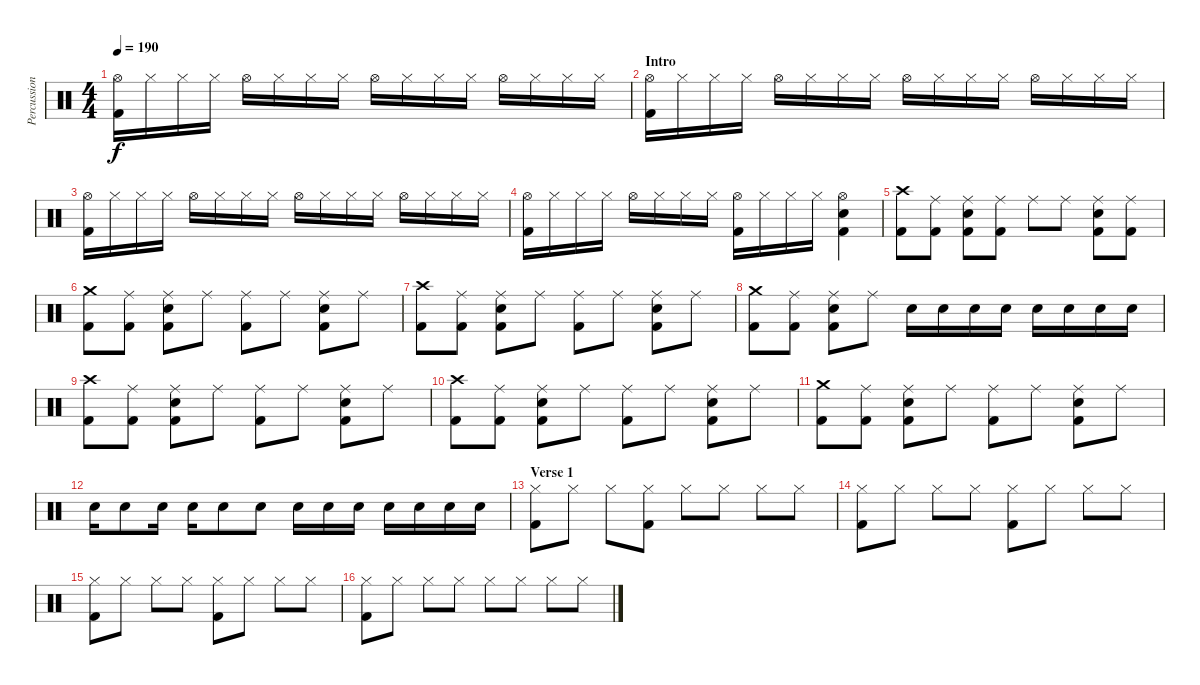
\track ("Percussion" "Percussion") {instrument percussion}
\staff {score}
\articulation defaults
\ts (4 4)
\tempo 190
\clef neutral
\ks c
("Hi-Hat (open)" "Kick (hit) 2").16{dy f} "Hi-Hat (closed)".16 "Hi-Hat (closed)".16 "Hi-Hat (closed)".16 "Hi-Hat (open)".16 "Hi-Hat (closed)".16 "Hi-Hat (closed)".16 "Hi-Hat (closed)".16 "Hi-Hat (open)".16 "Hi-Hat (closed)".16 "Hi-Hat (closed)".16 "Hi-Hat (closed)".16 "Hi-Hat (open)".16 "Hi-Hat (closed)".16 "Hi-Hat (closed)".16 "Hi-Hat (closed)".16 |
\section ("" "Intro")
("Hi-Hat (open)" "Kick (hit) 2").16 "Hi-Hat (closed)".16 "Hi-Hat (closed)".16 "Hi-Hat (closed)".16 "Hi-Hat (open)".16 "Hi-Hat (closed)".16 "Hi-Hat (closed)".16 "Hi-Hat (closed)".16 "Hi-Hat (open)".16 "Hi-Hat (closed)".16 "Hi-Hat (closed)".16 "Hi-Hat (closed)".16 "Hi-Hat (open)".16 "Hi-Hat (closed)".16 "Hi-Hat (closed)".16 "Hi-Hat (closed)".16 |
("Hi-Hat (open)" "Kick (hit) 2").16 "Hi-Hat (closed)".16 "Hi-Hat (closed)".16 "Hi-Hat (closed)".16 "Hi-Hat (open)".16 "Hi-Hat (closed)".16 "Hi-Hat (closed)".16 "Hi-Hat (closed)".16 "Hi-Hat (open)".16 "Hi-Hat (closed)".16 "Hi-Hat (closed)".16 "Hi-Hat (closed)".16 "Hi-Hat (open)".16 "Hi-Hat (closed)".16 "Hi-Hat (closed)".16 "Hi-Hat (closed)".16 |
("Hi-Hat (open)" "Kick (hit) 2").16 "Hi-Hat (closed)".16 "Hi-Hat (closed)".16 "Hi-Hat (closed)".16 "Hi-Hat (open)".16 "Hi-Hat (closed)".16 "Hi-Hat (closed)".16 "Hi-Hat (closed)".16 ("Hi-Hat (open)" "Kick (hit) 2").16 "Hi-Hat (closed)".16 "Hi-Hat (closed)".16 "Hi-Hat (closed)".16 ("Hi-Hat (open)" "Snare (hit)" "Kick (hit) 2").4 |
("Crash high (hit)" "Kick (hit) 2").8 ("Ride (middle)" "Kick (hit) 2").8 ("Electric Snare (hit)" "Ride (middle)" "Kick (hit) 2").8 ("Ride (middle)" "Kick (hit) 2").8 "Ride (middle)".8 "Ride (middle)".8 ("Kick (hit) 2" "Ride (middle)" "Electric Snare (hit)").8 ("Ride (middle)" "Kick (hit) 2").8 |
("Crash medium (hit)" "Kick (hit) 2").8 ("Ride (middle)" "Kick (hit) 2").8 ("Electric Snare (hit)" "Ride (middle)" "Kick (hit) 2").8 "Ride (middle)".8 ("Ride (middle)" "Kick (hit) 2").8 "Ride (middle)".8 ("Kick (hit) 2" "Ride (middle)" "Electric Snare (hit)").8 "Ride (middle)".8 |
("Crash high (hit)" "Kick (hit) 2").8 ("Ride (middle)" "Kick (hit) 2").8 ("Electric Snare (hit)" "Ride (middle)" "Kick (hit) 2").8 "Ride (middle)".8 ("Ride (middle)" "Kick (hit) 2").8 "Ride (middle)".8 ("Kick (hit) 2" "Ride (middle)" "Electric Snare (hit)").8 "Ride (middle)".8 |
("Crash medium (hit)" "Kick (hit) 2").8 ("Ride (middle)" "Kick (hit) 2").8 ("Electric Snare (hit)" "Ride (middle)" "Kick (hit) 2").8 "Ride (middle)".8 "Electric Snare (hit)".16 "Electric Snare (hit)".16 "Electric Snare (hit)".16 "Electric Snare (hit)".16 "Electric Snare (hit)".16 "Electric Snare (hit)".16 "Electric Snare (hit)".16 "Electric Snare (hit)".16 |
("Crash high (hit)" "Kick (hit) 2").8 ("Ride (middle)" "Kick (hit) 2").8 ("Electric Snare (hit)" "Ride (middle)" "Kick (hit) 2").8 "Ride (middle)".8 ("Ride (middle)" "Kick (hit) 2").8 "Ride (middle)".8 ("Kick (hit) 2" "Ride (middle)" "Electric Snare (hit)").8 "Ride (middle)".8 |
("Crash high (hit)" "Kick (hit) 2").8 ("Ride (middle)" "Kick (hit) 2").8 ("Electric Snare (hit)" "Ride (middle)" "Kick (hit) 2").8 "Ride (middle)".8 ("Ride (middle)" "Kick (hit) 2").8 "Ride (middle)".8 ("Kick (hit) 2" "Ride (middle)" "Electric Snare (hit)").8 "Ride (middle)".8 |
("Crash medium (hit)" "Kick (hit) 2").8 ("Ride (middle)" "Kick (hit) 2").8 ("Electric Snare (hit)" "Ride (middle)" "Kick (hit) 2").8 "Ride (middle)".8 ("Ride (middle)" "Kick (hit) 2").8 "Ride (middle)".8 ("Kick (hit) 2" "Ride (middle)" "Electric Snare (hit)").8 "Ride (middle)".8 |
"Electric Snare (hit)".16 "Electric Snare (hit)".8 "Electric Snare (hit)".16 "Electric Snare (hit)".16 "Electric Snare (hit)".8 "Electric Snare (hit)".8 "Electric Snare (hit)".16 "Electric Snare (hit)".16 "Electric Snare (hit)".16 "Electric Snare (hit)".16 "Electric Snare (hit)".16 "Electric Snare (hit)".16 "Electric Snare (hit)".16 |
\section ("" "Verse 1")
("Kick (hit) 2" "Hi-Hat (closed)").8 "Hi-Hat (closed)".8 "Hi-Hat (closed)".8 ("Kick (hit) 2" "Hi-Hat (closed)").8 "Hi-Hat (closed)".8 "Hi-Hat (closed)".8 "Hi-Hat (closed)".8 "Hi-Hat (closed)".8 |
("Kick (hit) 2" "Hi-Hat (closed)").8 "Hi-Hat (closed)".8 "Hi-Hat (closed)".8 "Hi-Hat (closed)".8 ("Kick (hit) 2" "Hi-Hat (closed)").8 "Hi-Hat (closed)".8 "Hi-Hat (closed)".8 "Hi-Hat (closed)".8 |
("Kick (hit) 2" "Hi-Hat (closed)").8 "Hi-Hat (closed)".8 "Hi-Hat (closed)".8 "Hi-Hat (closed)".8 ("Kick (hit) 2" "Hi-Hat (closed)").8 "Hi-Hat (closed)".8 "Hi-Hat (closed)".8 "Hi-Hat (closed)".8 |
("Kick (hit) 2" "Hi-Hat (closed)").8 "Hi-Hat (closed)".8 "Hi-Hat (closed)".8 "Hi-Hat (closed)".8 "Hi-Hat (closed)".8 "Hi-Hat (closed)".8 "Hi-Hat (closed)".8 "Hi-Hat (closed)".8
